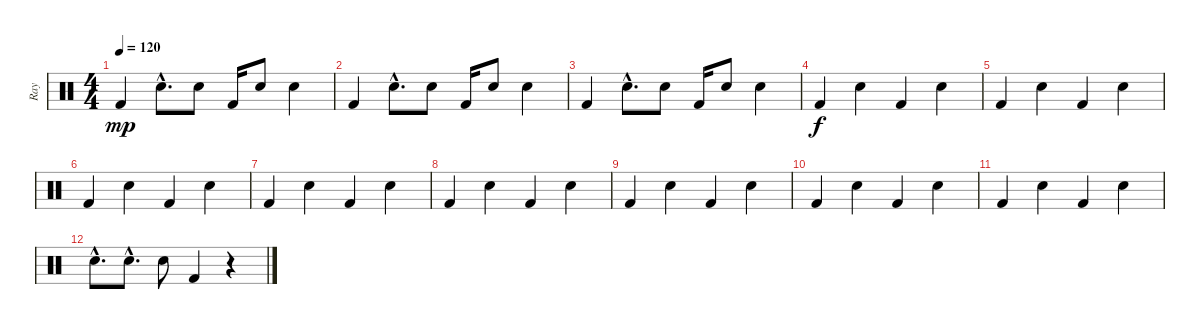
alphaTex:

\track ("Ray" "Ray") {instrument percussion}
\staff {score}
\articulation defaults
\ts (4 4)
\tempo 120
\clef neutral
\ks c "Kick (hit) 2".4{dy mp} "Snare (hit) 2"{hac}.8{d} "Snare (hit) 2".8 "Kick (hit) 2".16 "Snare (hit) 2".8 "Snare (hit) 2".4
|
"Kick (hit) 2".4 "Snare (hit) 2"{hac}.8{d} "Snare (hit) 2".8 "Kick (hit) 2".16 "Snare (hit) 2".8 "Snare (hit) 2".4 |
"Kick (hit) 2".4 "Snare (hit) 2"{hac}.8{d} "Snare (hit) 2".8 "Kick (hit) 2".16 "Snare (hit) 2".8 "Snare (hit) 2".4 |
"Kick (hit) 2".4{dy f} "Snare (hit) 2".4 "Kick (hit) 2".4 "Snare (hit) 2".4 |
"Kick (hit) 2".4 "Snare (hit) 2".4 "Kick (hit) 2".4 "Snare (hit) 2".4 |
"Kick (hit) 2".4 "Snare (hit) 2".4 "Kick (hit) 2".4 "Snare (hit) 2".4 |
"Kick (hit) 2".4 "Snare (hit) 2".4 "Kick (hit) 2".4 "Snare (hit) 2".4 |
"Kick (hit) 2".4 "Snare (hit) 2".4 "Kick (hit) 2".4 "Snare (hit) 2".4 |
"Kick (hit) 2".4 "Snare (hit) 2".4 "Kick (hit) 2".4 "Snare (hit) 2".4 |
"Kick (hit) 2".4 "Snare (hit) 2".4 "Kick (hit) 2".4 "Snare (hit) 2".4 |
"Kick (hit) 2".4 "Snare (hit) 2".4 "Kick (hit) 2".4 "Snare (hit) 2".4 |
"Snare (hit) 2"{hac}.8{d} "Snare (hit) 2"{hac}.8{d} "Snare (hit) 2".8 "Kick (hit) 2".4 r.4
